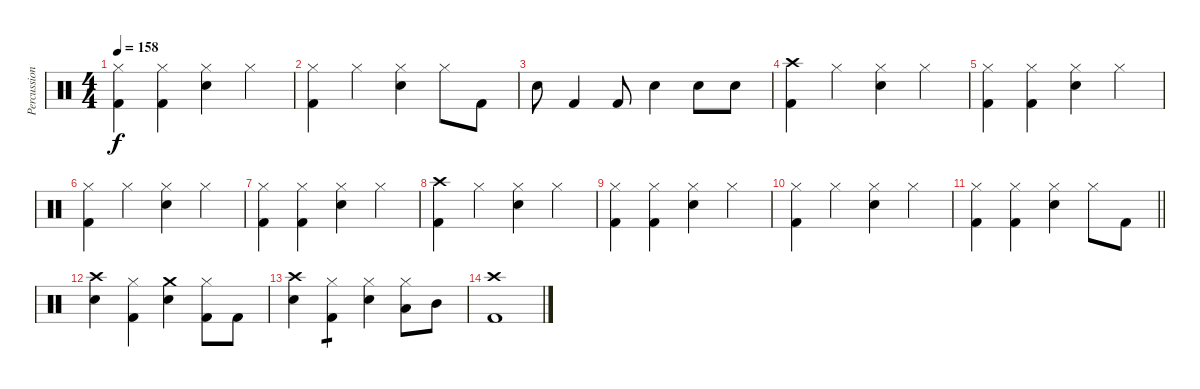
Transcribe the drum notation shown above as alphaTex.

\track ("Percussion" "Percussion") {instrument percussion}
\staff {score}
\articulation defaults
\ts (4 4)
\tempo 158
\clef neutral
\ks c
("Hi-Hat (closed)" "Kick (hit) 2").4{dy f} ("Hi-Hat (closed)" "Kick (hit) 2").4 ("Hi-Hat (closed)" "Snare (hit) 2").4 "Hi-Hat (closed)".4 |
("Hi-Hat (closed)" "Kick (hit) 2").4 "Hi-Hat (closed)".4 ("Hi-Hat (closed)" "Snare (hit) 2").4 "Hi-Hat (closed)".8 "Kick (hit) 2".8 |
"Snare (hit) 2".8 "Kick (hit) 2".4 "Kick (hit) 2".8 "Snare (hit) 2".4 "Snare (hit) 2".8 "Snare (hit) 2".8 |
("Crash high (hit)" "Kick (hit) 2").4 "Hi-Hat (closed)".4 ("Hi-Hat (closed)" "Snare (hit) 2").4 "Hi-Hat (closed)".4 |
("Hi-Hat (closed)" "Kick (hit) 2").4 ("Hi-Hat (closed)" "Kick (hit) 2").4 ("Hi-Hat (closed)" "Snare (hit) 2").4 "Hi-Hat (closed)".4 |
("Hi-Hat (closed)" "Kick (hit) 2").4 "Hi-Hat (closed)".4 ("Hi-Hat (closed)" "Snare (hit) 2").4 "Hi-Hat (closed)".4 |
("Hi-Hat (closed)" "Kick (hit) 2").4 ("Hi-Hat (closed)" "Kick (hit) 2").4 ("Hi-Hat (closed)" "Snare (hit) 2").4 "Hi-Hat (closed)".4 |
("Crash high (hit)" "Kick (hit) 2").4 "Hi-Hat (closed)".4 ("Hi-Hat (closed)" "Snare (hit) 2").4 "Hi-Hat (closed)".4 |
("Hi-Hat (closed)" "Kick (hit) 2").4 ("Hi-Hat (closed)" "Kick (hit) 2").4 ("Hi-Hat (closed)" "Snare (hit) 2").4 "Hi-Hat (closed)".4 |
("Hi-Hat (closed)" "Kick (hit) 2").4 "Hi-Hat (closed)".4 ("Hi-Hat (closed)" "Snare (hit) 2").4 "Hi-Hat (closed)".4 |
\barLineRight lightlight
("Hi-Hat (closed)" "Kick (hit) 2").4 ("Hi-Hat (closed)" "Kick (hit) 2").4 ("Hi-Hat (closed)" "Snare (hit) 2").4 "Hi-Hat (closed)".8 "Kick (hit) 2".8 |
("Crash high (hit)" "Snare (hit) 2").4 ("Hi-Hat (closed)" "Kick (hit) 2").4 ("Crash medium (hit)" "Snare (hit) 2").4 ("Hi-Hat (closed)" "Kick (hit) 2").8 "Kick (hit) 2".8 |
("Crash high (hit)" "Snare (hit) 2").4 ("Hi-Hat (closed)" "Kick (hit) 2").4{tp 1} ("Hi-Hat (closed)" "Snare (hit) 2").4 ("Hi-Hat (closed)" "Low Tom (hit)").8 "Mid Tom (hit)".8 |
("Kick (hit) 2" "Crash high (hit)").1
